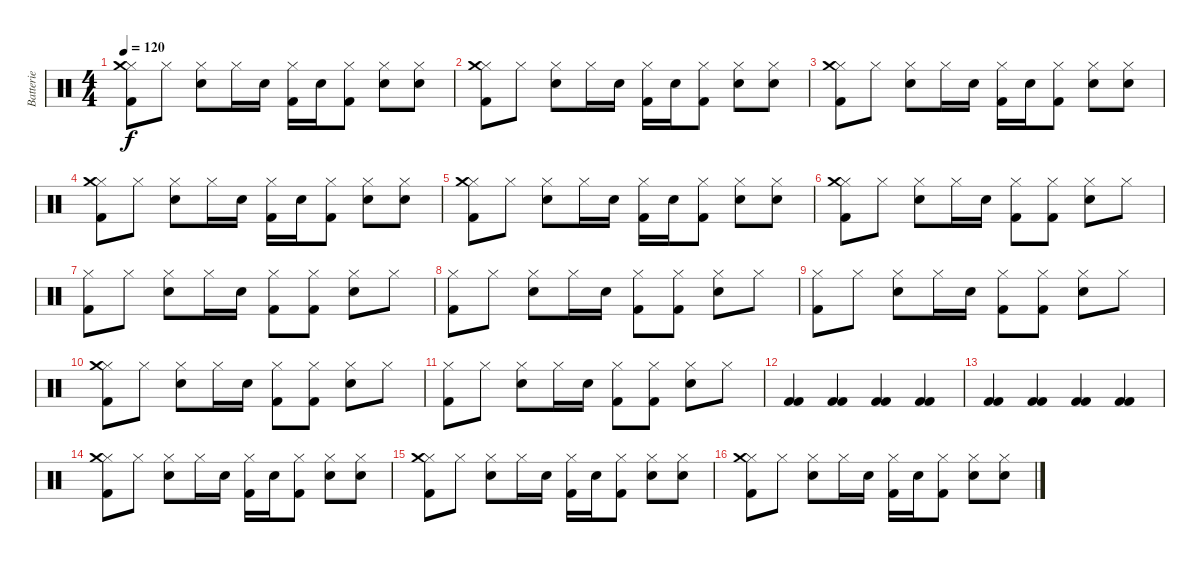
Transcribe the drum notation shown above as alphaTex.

\track ("Batterie" "Batterie") {instrument percussion}
\staff {score}
\articulation defaults
\ts (4 4)
\tempo 120
\clef neutral
\ks c
("Kick (hit) 2" "Hi-Hat (closed)" "Crash medium (hit)").8{dy f} "Hi-Hat (closed)".8 ("Snare (hit) 2" "Hi-Hat (closed)").8 "Hi-Hat (closed)".16 "Snare (hit) 2".16 ("Kick (hit) 2" "Hi-Hat (closed)").16 "Snare (hit) 2".16 ("Kick (hit) 2" "Hi-Hat (closed)").8 ("Snare (hit) 2" "Hi-Hat (closed)").8 ("Snare (hit) 2" "Hi-Hat (closed)").8 |
("Kick (hit) 2" "Hi-Hat (closed)" "Crash medium (hit)").8 "Hi-Hat (closed)".8 ("Snare (hit) 2" "Hi-Hat (closed)").8 "Hi-Hat (closed)".16 "Snare (hit) 2".16 ("Kick (hit) 2" "Hi-Hat (closed)").16 "Snare (hit) 2".16 ("Kick (hit) 2" "Hi-Hat (closed)").8 ("Snare (hit) 2" "Hi-Hat (closed)").8 ("Snare (hit) 2" "Hi-Hat (closed)").8 |
("Kick (hit) 2" "Hi-Hat (closed)" "Crash medium (hit)").8 "Hi-Hat (closed)".8 ("Snare (hit) 2" "Hi-Hat (closed)").8 "Hi-Hat (closed)".16 "Snare (hit) 2".16 ("Kick (hit) 2" "Hi-Hat (closed)").16 "Snare (hit) 2".16 ("Kick (hit) 2" "Hi-Hat (closed)").8 ("Snare (hit) 2" "Hi-Hat (closed)").8 ("Snare (hit) 2" "Hi-Hat (closed)").8 |
("Kick (hit) 2" "Hi-Hat (closed)" "Crash medium (hit)").8 "Hi-Hat (closed)".8 ("Snare (hit) 2" "Hi-Hat (closed)").8 "Hi-Hat (closed)".16 "Snare (hit) 2".16 ("Kick (hit) 2" "Hi-Hat (closed)").16 "Snare (hit) 2".16 ("Kick (hit) 2" "Hi-Hat (closed)").8 ("Snare (hit) 2" "Hi-Hat (closed)").8 ("Snare (hit) 2" "Hi-Hat (closed)").8 |
("Kick (hit) 2" "Hi-Hat (closed)" "Crash medium (hit)").8 "Hi-Hat (closed)".8 ("Snare (hit) 2" "Hi-Hat (closed)").8 "Hi-Hat (closed)".16 "Snare (hit) 2".16 ("Kick (hit) 2" "Hi-Hat (closed)").16 "Snare (hit) 2".16 ("Kick (hit) 2" "Hi-Hat (closed)").8 ("Snare (hit) 2" "Hi-Hat (closed)").8 ("Snare (hit) 2" "Hi-Hat (closed)").8 |
("Kick (hit) 2" "Hi-Hat (closed)" "Crash medium (hit)").8 "Hi-Hat (closed)".8 ("Snare (hit) 2" "Hi-Hat (closed)").8 "Hi-Hat (closed)".16 "Snare (hit) 2".16 ("Kick (hit) 2" "Hi-Hat (closed)").8 ("Kick (hit) 2" "Hi-Hat (closed)").8 ("Snare (hit) 2" "Hi-Hat (closed)").8 "Hi-Hat (closed)".8 |
("Kick (hit) 2" "Hi-Hat (closed)").8 "Hi-Hat (closed)".8 ("Snare (hit) 2" "Hi-Hat (closed)").8 "Hi-Hat (closed)".16 "Snare (hit) 2".16 ("Kick (hit) 2" "Hi-Hat (closed)").8 ("Kick (hit) 2" "Hi-Hat (closed)").8 ("Snare (hit) 2" "Hi-Hat (closed)").8 "Hi-Hat (closed)".8 |
("Kick (hit) 2" "Hi-Hat (closed)").8 "Hi-Hat (closed)".8 ("Snare (hit) 2" "Hi-Hat (closed)").8 "Hi-Hat (closed)".16 "Snare (hit) 2".16 ("Kick (hit) 2" "Hi-Hat (closed)").8 ("Kick (hit) 2" "Hi-Hat (closed)").8 ("Snare (hit) 2" "Hi-Hat (closed)").8 "Hi-Hat (closed)".8 |
("Kick (hit) 2" "Hi-Hat (closed)").8 "Hi-Hat (closed)".8 ("Snare (hit) 2" "Hi-Hat (closed)").8 "Hi-Hat (closed)".16 "Snare (hit) 2".16 ("Kick (hit) 2" "Hi-Hat (closed)").8 ("Kick (hit) 2" "Hi-Hat (closed)").8 ("Snare (hit) 2" "Hi-Hat (closed)").8 "Hi-Hat (closed)".8 |
("Kick (hit) 2" "Hi-Hat (closed)" "Crash medium (hit)").8 "Hi-Hat (closed)".8 ("Snare (hit) 2" "Hi-Hat (closed)").8 "Hi-Hat (closed)".16 "Snare (hit) 2".16 ("Kick (hit) 2" "Hi-Hat (closed)").8 ("Kick (hit) 2" "Hi-Hat (closed)").8 ("Snare (hit) 2" "Hi-Hat (closed)").8 "Hi-Hat (closed)".8 |
("Kick (hit) 2" "Hi-Hat (closed)").8 "Hi-Hat (closed)".8 ("Snare (hit) 2" "Hi-Hat (closed)").8 "Hi-Hat (closed)".16 "Snare (hit) 2".16 ("Kick (hit) 2" "Hi-Hat (closed)").8 ("Kick (hit) 2" "Hi-Hat (closed)").8 ("Snare (hit) 2" "Hi-Hat (closed)").8 "Hi-Hat (closed)".8 |
("Kick (hit) 2" "Kick (hit) 2").4 ("Kick (hit) 2" "Kick (hit) 2").4 ("Kick (hit) 2" "Kick (hit) 2").4 ("Kick (hit) 2" "Kick (hit) 2").4 |
("Kick (hit) 2" "Kick (hit) 2").4 ("Kick (hit) 2" "Kick (hit) 2").4 ("Kick (hit) 2" "Kick (hit) 2").4 ("Kick (hit) 2" "Kick (hit) 2").4 |
("Kick (hit) 2" "Hi-Hat (closed)" "Crash medium (hit)").8 "Hi-Hat (closed)".8 ("Snare (hit) 2" "Hi-Hat (closed)").8 "Hi-Hat (closed)".16 "Snare (hit) 2".16 ("Kick (hit) 2" "Hi-Hat (closed)").16 "Snare (hit) 2".16 ("Kick (hit) 2" "Hi-Hat (closed)").8 ("Snare (hit) 2" "Hi-Hat (closed)").8 ("Snare (hit) 2" "Hi-Hat (closed)").8 |
("Kick (hit) 2" "Hi-Hat (closed)" "Crash medium (hit)").8 "Hi-Hat (closed)".8 ("Snare (hit) 2" "Hi-Hat (closed)").8 "Hi-Hat (closed)".16 "Snare (hit) 2".16 ("Kick (hit) 2" "Hi-Hat (closed)").16 "Snare (hit) 2".16 ("Kick (hit) 2" "Hi-Hat (closed)").8 ("Snare (hit) 2" "Hi-Hat (closed)").8 ("Snare (hit) 2" "Hi-Hat (closed)").8 |
("Kick (hit) 2" "Hi-Hat (closed)" "Crash medium (hit)").8 "Hi-Hat (closed)".8 ("Snare (hit) 2" "Hi-Hat (closed)").8 "Hi-Hat (closed)".16 "Snare (hit) 2".16 ("Kick (hit) 2" "Hi-Hat (closed)").16 "Snare (hit) 2".16 ("Kick (hit) 2" "Hi-Hat (closed)").8 ("Snare (hit) 2" "Hi-Hat (closed)").8 ("Snare (hit) 2" "Hi-Hat (closed)").8
